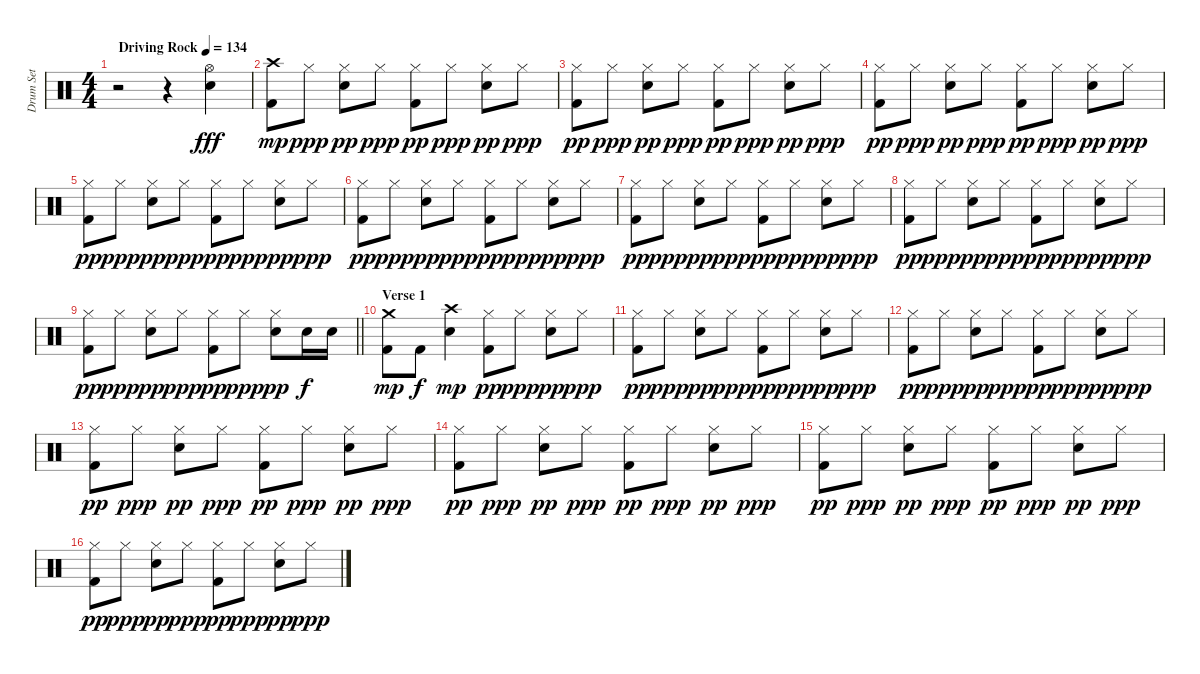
\track ("Drum Set" "Drum Set") {instrument percussion}
\staff {score}
\articulation defaults
\ts (4 4)
\tempo (134 "Driving Rock")
\clef neutral
\ks c
r.2{dy fff} r.4 ("Electric Snare (hit)" "Hi-Hat (open)").4 |
("Crash high (hit)" "Kick (hit) 2").8{dy mp} "Hi-Hat (closed)".8{dy ppp} ("Hi-Hat (closed)" "Electric Snare (hit)").8{dy pp} "Hi-Hat (closed)".8{dy ppp} ("Hi-Hat (closed)" "Kick (hit) 2").8{dy pp} "Hi-Hat (closed)".8{dy ppp} ("Hi-Hat (closed)" "Electric Snare (hit)").8{dy pp} "Hi-Hat (closed)".8{dy ppp} |
("Hi-Hat (closed)" "Kick (hit) 2").8{dy pp} "Hi-Hat (closed)".8{dy ppp} ("Hi-Hat (closed)" "Electric Snare (hit)").8{dy pp} "Hi-Hat (closed)".8{dy ppp} ("Hi-Hat (closed)" "Kick (hit) 2").8{dy pp} "Hi-Hat (closed)".8{dy ppp} ("Hi-Hat (closed)" "Electric Snare (hit)").8{dy pp} "Hi-Hat (closed)".8{dy ppp} |
("Hi-Hat (closed)" "Kick (hit) 2").8{dy pp} "Hi-Hat (closed)".8{dy ppp} ("Hi-Hat (closed)" "Electric Snare (hit)").8{dy pp} "Hi-Hat (closed)".8{dy ppp} ("Hi-Hat (closed)" "Kick (hit) 2").8{dy pp} "Hi-Hat (closed)".8{dy ppp} ("Hi-Hat (closed)" "Electric Snare (hit)").8{dy pp} "Hi-Hat (closed)".8{dy ppp} |
("Hi-Hat (closed)" "Kick (hit) 2").8{dy pp} "Hi-Hat (closed)".8{dy ppp} ("Hi-Hat (closed)" "Electric Snare (hit)").8{dy pp} "Hi-Hat (closed)".8{dy ppp} ("Hi-Hat (closed)" "Kick (hit) 2").8{dy pp} "Hi-Hat (closed)".8{dy ppp} ("Hi-Hat (closed)" "Electric Snare (hit)").8{dy pp} "Hi-Hat (closed)".8{dy ppp} |
("Hi-Hat (closed)" "Kick (hit) 2").8{dy pp} "Hi-Hat (closed)".8{dy ppp} ("Hi-Hat (closed)" "Electric Snare (hit)").8{dy pp} "Hi-Hat (closed)".8{dy ppp} ("Hi-Hat (closed)" "Kick (hit) 2").8{dy pp} "Hi-Hat (closed)".8{dy ppp} ("Hi-Hat (closed)" "Electric Snare (hit)").8{dy pp} "Hi-Hat (closed)".8{dy ppp} |
("Hi-Hat (closed)" "Kick (hit) 2").8{dy pp} "Hi-Hat (closed)".8{dy ppp} ("Hi-Hat (closed)" "Electric Snare (hit)").8{dy pp} "Hi-Hat (closed)".8{dy ppp} ("Hi-Hat (closed)" "Kick (hit) 2").8{dy pp} "Hi-Hat (closed)".8{dy ppp} ("Hi-Hat (closed)" "Electric Snare (hit)").8{dy pp} "Hi-Hat (closed)".8{dy ppp} |
("Hi-Hat (closed)" "Kick (hit) 2").8{dy pp} "Hi-Hat (closed)".8{dy ppp} ("Hi-Hat (closed)" "Electric Snare (hit)").8{dy pp} "Hi-Hat (closed)".8{dy ppp} ("Hi-Hat (closed)" "Kick (hit) 2").8{dy pp} "Hi-Hat (closed)".8{dy ppp} ("Hi-Hat (closed)" "Electric Snare (hit)").8{dy pp} "Hi-Hat (closed)".8{dy ppp} |
\barLineRight lightlight
("Hi-Hat (closed)" "Kick (hit) 2").8{dy pp} "Hi-Hat (closed)".8{dy ppp} ("Hi-Hat (closed)" "Electric Snare (hit)").8{dy pp} "Hi-Hat (closed)".8{dy ppp} ("Hi-Hat (closed)" "Kick (hit) 2").8{dy pp} "Hi-Hat (closed)".8{dy ppp} ("Hi-Hat (closed)" "Electric Snare (hit)").8{dy pp} "Electric Snare (hit)".16{dy f} "Electric Snare (hit)".16 |
\section ("" "Verse 1")
("Crash medium (hit)" "Kick (hit) 2").8{dy mp} "Kick (hit) 2".8{dy f} ("Crash high (hit)" "Electric Snare (hit)").4{dy mp} ("Hi-Hat (closed)" "Kick (hit) 2").8{dy pp} "Hi-Hat (closed)".8{dy ppp} ("Hi-Hat (closed)" "Electric Snare (hit)").8{dy pp} "Hi-Hat (closed)".8{dy ppp} |
("Hi-Hat (closed)" "Kick (hit) 2").8{dy pp} "Hi-Hat (closed)".8{dy ppp} ("Hi-Hat (closed)" "Electric Snare (hit)").8{dy pp} "Hi-Hat (closed)".8{dy ppp} ("Hi-Hat (closed)" "Kick (hit) 2").8{dy pp} "Hi-Hat (closed)".8{dy ppp} ("Hi-Hat (closed)" "Electric Snare (hit)").8{dy pp} "Hi-Hat (closed)".8{dy ppp} |
("Hi-Hat (closed)" "Kick (hit) 2").8{dy pp} "Hi-Hat (closed)".8{dy ppp} ("Hi-Hat (closed)" "Electric Snare (hit)").8{dy pp} "Hi-Hat (closed)".8{dy ppp} ("Hi-Hat (closed)" "Kick (hit) 2").8{dy pp} "Hi-Hat (closed)".8{dy ppp} ("Hi-Hat (closed)" "Electric Snare (hit)").8{dy pp} "Hi-Hat (closed)".8{dy ppp} |
("Hi-Hat (closed)" "Kick (hit) 2").8{dy pp} "Hi-Hat (closed)".8{dy ppp} ("Hi-Hat (closed)" "Electric Snare (hit)").8{dy pp} "Hi-Hat (closed)".8{dy ppp} ("Hi-Hat (closed)" "Kick (hit) 2").8{dy pp} "Hi-Hat (closed)".8{dy ppp} ("Hi-Hat (closed)" "Electric Snare (hit)").8{dy pp} "Hi-Hat (closed)".8{dy ppp} |
("Hi-Hat (closed)" "Kick (hit) 2").8{dy pp} "Hi-Hat (closed)".8{dy ppp} ("Hi-Hat (closed)" "Electric Snare (hit)").8{dy pp} "Hi-Hat (closed)".8{dy ppp} ("Hi-Hat (closed)" "Kick (hit) 2").8{dy pp} "Hi-Hat (closed)".8{dy ppp} ("Hi-Hat (closed)" "Electric Snare (hit)").8{dy pp} "Hi-Hat (closed)".8{dy ppp} |
("Hi-Hat (closed)" "Kick (hit) 2").8{dy pp} "Hi-Hat (closed)".8{dy ppp} ("Hi-Hat (closed)" "Electric Snare (hit)").8{dy pp} "Hi-Hat (closed)".8{dy ppp} ("Hi-Hat (closed)" "Kick (hit) 2").8{dy pp} "Hi-Hat (closed)".8{dy ppp} ("Hi-Hat (closed)" "Electric Snare (hit)").8{dy pp} "Hi-Hat (closed)".8{dy ppp} |
("Hi-Hat (closed)" "Kick (hit) 2").8{dy pp} "Hi-Hat (closed)".8{dy ppp} ("Hi-Hat (closed)" "Electric Snare (hit)").8{dy pp} "Hi-Hat (closed)".8{dy ppp} ("Hi-Hat (closed)" "Kick (hit) 2").8{dy pp} "Hi-Hat (closed)".8{dy ppp} ("Hi-Hat (closed)" "Electric Snare (hit)").8{dy pp} "Hi-Hat (closed)".8{dy ppp}
